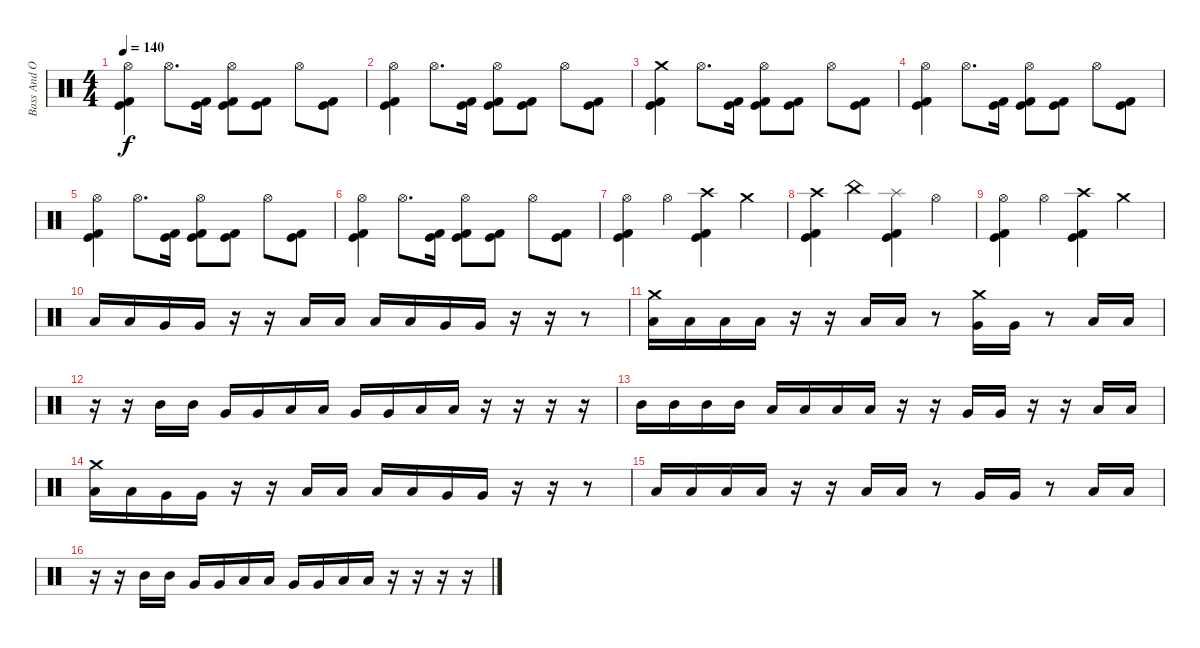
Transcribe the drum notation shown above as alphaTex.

\track ("Bass And Other Things" "Bass And O") {instrument percussion}
\staff {score}
\articulation defaults
\ts (4 4)
\tempo 140
\clef neutral
\ks c
("Kick (hit) 2" "Kick (hit)" "Hi-Hat (open)").4{dy f} "Hi-Hat (open)".8{d} ("Kick (hit)" "Kick (hit) 2").16 ("Kick (hit) 2" "Kick (hit)" "Hi-Hat (open)").8 ("Kick (hit) 2" "Kick (hit)").8 "Hi-Hat (open)".8 ("Kick (hit)" "Kick (hit) 2").8 |
("Kick (hit) 2" "Kick (hit)" "Hi-Hat (open)").4 "Hi-Hat (open)".8{d} ("Kick (hit)" "Kick (hit) 2").16 ("Kick (hit) 2" "Kick (hit)" "Hi-Hat (open)").8 ("Kick (hit) 2" "Kick (hit)").8 "Hi-Hat (open)".8 ("Kick (hit)" "Kick (hit) 2").8 |
("Kick (hit) 2" "Kick (hit)" "Crash medium (hit)").4 "Hi-Hat (open)".8{d} ("Kick (hit)" "Kick (hit) 2").16 ("Kick (hit) 2" "Kick (hit)" "Hi-Hat (open)").8 ("Kick (hit) 2" "Kick (hit)").8 "Hi-Hat (open)".8 ("Kick (hit)" "Kick (hit) 2").8 |
("Kick (hit) 2" "Kick (hit)" "Hi-Hat (open)").4 "Hi-Hat (open)".8{d} ("Kick (hit)" "Kick (hit) 2").16 ("Kick (hit) 2" "Kick (hit)" "Hi-Hat (open)").8 ("Kick (hit) 2" "Kick (hit)").8 "Hi-Hat (open)".8 ("Kick (hit)" "Kick (hit) 2").8 |
("Kick (hit) 2" "Kick (hit)" "Hi-Hat (open)").4 "Hi-Hat (open)".8{d} ("Kick (hit)" "Kick (hit) 2").16 ("Kick (hit) 2" "Kick (hit)" "Hi-Hat (open)").8 ("Kick (hit) 2" "Kick (hit)").8 "Hi-Hat (open)".8 ("Kick (hit)" "Kick (hit) 2").8 |
("Kick (hit) 2" "Kick (hit)" "Hi-Hat (open)").4 "Hi-Hat (open)".8{d} ("Kick (hit)" "Kick (hit) 2").16 ("Kick (hit) 2" "Kick (hit)" "Hi-Hat (open)").8 ("Kick (hit) 2" "Kick (hit)").8 "Hi-Hat (open)".8 ("Kick (hit)" "Kick (hit) 2").8 |
("Kick (hit) 2" "Kick (hit)" "Hi-Hat (open)").4 "Hi-Hat (open)".4 ("Crash high (hit)" "Kick (hit)" "Kick (hit) 2").4 "Crash medium (hit)".4 |
("Kick (hit) 2" "Kick (hit)" "Crash high (hit)").4 "China (hit)".4 ("Splash (hit)" "Kick (hit) 2" "Kick (hit)").4 "Hi-Hat (open)".4 |
("Kick (hit) 2" "Kick (hit)" "Hi-Hat (open)").4 "Hi-Hat (open)".4 ("Crash high (hit)" "Kick (hit)" "Kick (hit) 2").4 "Crash medium (hit)".4 |
"Low Tom (hit)".16 "Low Tom (hit)".16 "Very Low Tom (hit)".16 "Very Low Tom (hit)".16 r.16 r.16 "Low Tom (hit)".16 "Low Tom (hit)".16 "Low Tom (hit)".16 "Low Tom (hit)".16 "Very Low Tom (hit)".16 "Very Low Tom (hit)".16 r.16 r.16 r.8 |
("Low Tom (hit)" "Crash medium (hit)").16 "Low Tom (hit)".16 "Low Tom (hit)".16 "Low Tom (hit)".16 r.16 r.16 "Low Tom (hit)".16 "Low Tom (hit)".16 r.8 ("Very Low Tom (hit)" "Crash medium (hit)").16 "Very Low Tom (hit)".16 r.8 "Low Floor Tom (hit)".16 "Low Floor Tom (hit)".16 |
r.16 r.16 "Mid Tom (hit)".16 "Mid Tom (hit)".16 "Very Low Tom (hit)".16 "Very Low Tom (hit)".16 "Low Tom (hit)".16 "Low Tom (hit)".16 "Very Low Tom (hit)".16 "Very Low Tom (hit)".16 "Low Floor Tom (hit)".16 "Low Floor Tom (hit)".16 r.16 r.16 r.16 r.16 |
"Mid Tom (hit)".16 "Mid Tom (hit)".16 "Mid Tom (hit)".16 "Mid Tom (hit)".16 "Low Tom (hit)".16 "Low Tom (hit)".16 "Low Tom (hit)".16 "Low Tom (hit)".16 r.16 r.16 "Very Low Tom (hit)".16 "Very Low Tom (hit)".16 r.16 r.16 "Low Floor Tom (hit)".16 "Low Floor Tom (hit)".16 |
("Low Tom (hit)" "Crash medium (hit)").16 "Low Tom (hit)".16 "Very Low Tom (hit)".16 "Very Low Tom (hit)".16 r.16 r.16 "Low Tom (hit)".16 "Low Tom (hit)".16 "Low Tom (hit)".16 "Low Tom (hit)".16 "Very Low Tom (hit)".16 "Very Low Tom (hit)".16 r.16 r.16 r.8 |
"Low Tom (hit)".16 "Low Tom (hit)".16 "Low Tom (hit)".16 "Low Tom (hit)".16 r.16 r.16 "Low Tom (hit)".16 "Low Tom (hit)".16 r.8 "Very Low Tom (hit)".16 "Very Low Tom (hit)".16 r.8 "Low Floor Tom (hit)".16 "Low Floor Tom (hit)".16 |
r.16 r.16 "Mid Tom (hit)".16 "Mid Tom (hit)".16 "Very Low Tom (hit)".16 "Very Low Tom (hit)".16 "Low Tom (hit)".16 "Low Tom (hit)".16 "Very Low Tom (hit)".16 "Very Low Tom (hit)".16 "Low Floor Tom (hit)".16 "Low Floor Tom (hit)".16 r.16 r.16 r.16 r.16
